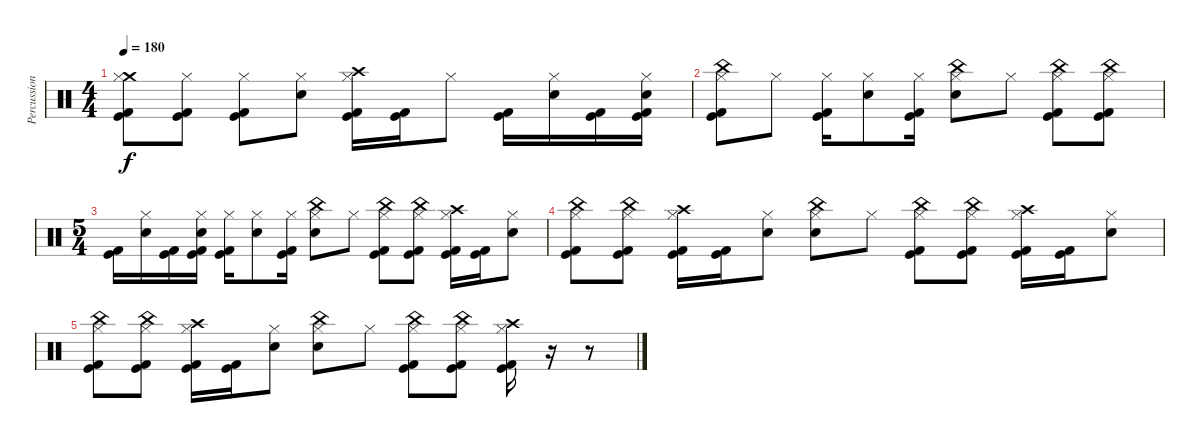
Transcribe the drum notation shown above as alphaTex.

\track ("Percussion" "Percussion") {instrument percussion}
\staff {score}
\articulation defaults
\ts (4 4)
\tempo 180
\clef neutral
\ks c
("Crash medium (hit)" "Hi-Hat (closed)" "Kick (hit)" "Kick (hit) 2").8{dy f} ("Hi-Hat (closed)" "Kick (hit)" "Kick (hit) 2").8 ("Hi-Hat (closed)" "Kick (hit)" "Kick (hit) 2").8 ("Hi-Hat (closed)" "Electric Snare (hit)").8 ("Crash high (hit)" "Hi-Hat (closed)" "Kick (hit)" "Kick (hit) 2").16 ("Kick (hit)" "Kick (hit) 2").16 "Hi-Hat (closed)".8 ("Kick (hit)" "Kick (hit) 2").16 ("Hi-Hat (closed)" "Electric Snare (hit)").16 ("Kick (hit)" "Kick (hit) 2").16 ("Hi-Hat (closed)" "Electric Snare (hit)" "Kick (hit)" "Kick (hit) 2").16 |
("China (hit)" "Hi-Hat (closed)" "Kick (hit)" "Kick (hit) 2").8 "Hi-Hat (closed)".8 ("Hi-Hat (closed)" "Kick (hit)" "Kick (hit) 2").16 ("Hi-Hat (closed)" "Electric Snare (hit)").8 ("Hi-Hat (closed)" "Kick (hit)" "Kick (hit) 2").16 ("China (hit)" "Hi-Hat (closed)" "Electric Snare (hit)").8 "Hi-Hat (closed)".8 ("China (hit)" "Hi-Hat (closed)" "Kick (hit)" "Kick (hit) 2").8 ("China (hit)" "Hi-Hat (closed)" "Kick (hit)" "Kick (hit) 2").8 |
\ts (5 4)
("Kick (hit)" "Kick (hit) 2").16 ("Hi-Hat (closed)" "Electric Snare (hit)").16 ("Kick (hit)" "Kick (hit) 2").16 ("Hi-Hat (closed)" "Electric Snare (hit)" "Kick (hit)" "Kick (hit) 2").16 ("Hi-Hat (closed)" "Kick (hit)" "Kick (hit) 2").16 ("Hi-Hat (closed)" "Electric Snare (hit)").8 ("Hi-Hat (closed)" "Kick (hit)" "Kick (hit) 2").16 ("China (hit)" "Hi-Hat (closed)" "Electric Snare (hit)").8 "Hi-Hat (closed)".8 ("China (hit)" "Hi-Hat (closed)" "Kick (hit)" "Kick (hit) 2").8 ("China (hit)" "Hi-Hat (closed)" "Kick (hit)" "Kick (hit) 2").8 ("Crash high (hit)" "Hi-Hat (closed)" "Kick (hit)" "Kick (hit) 2").16 ("Kick (hit)" "Kick (hit) 2").16 ("Hi-Hat (closed)" "Electric Snare (hit)").8 |
("China (hit)" "Hi-Hat (closed)" "Kick (hit)" "Kick (hit) 2").8 ("China (hit)" "Hi-Hat (closed)" "Kick (hit)" "Kick (hit) 2").8 ("Crash high (hit)" "Hi-Hat (closed)" "Kick (hit)" "Kick (hit) 2").16 ("Kick (hit)" "Kick (hit) 2").16 ("Hi-Hat (closed)" "Electric Snare (hit)").8 ("China (hit)" "Hi-Hat (closed)" "Electric Snare (hit)").8 "Hi-Hat (closed)".8 ("China (hit)" "Hi-Hat (closed)" "Kick (hit)" "Kick (hit) 2").8 ("China (hit)" "Hi-Hat (closed)" "Kick (hit)" "Kick (hit) 2").8 ("Crash high (hit)" "Hi-Hat (closed)" "Kick (hit)" "Kick (hit) 2").16 ("Kick (hit)" "Kick (hit) 2").16 ("Hi-Hat (closed)" "Electric Snare (hit)").8 |
("China (hit)" "Hi-Hat (closed)" "Kick (hit)" "Kick (hit) 2").8 ("China (hit)" "Hi-Hat (closed)" "Kick (hit)" "Kick (hit) 2").8 ("Crash high (hit)" "Hi-Hat (closed)" "Kick (hit)" "Kick (hit) 2").16 ("Kick (hit)" "Kick (hit) 2").16 ("Hi-Hat (closed)" "Electric Snare (hit)").8 ("China (hit)" "Hi-Hat (closed)" "Electric Snare (hit)").8 "Hi-Hat (closed)".8 ("China (hit)" "Hi-Hat (closed)" "Kick (hit)" "Kick (hit) 2").8 ("China (hit)" "Hi-Hat (closed)" "Kick (hit)" "Kick (hit) 2").8 ("Crash high (hit)" "Hi-Hat (closed)" "Kick (hit)" "Kick (hit) 2").16 r.16 r.8
